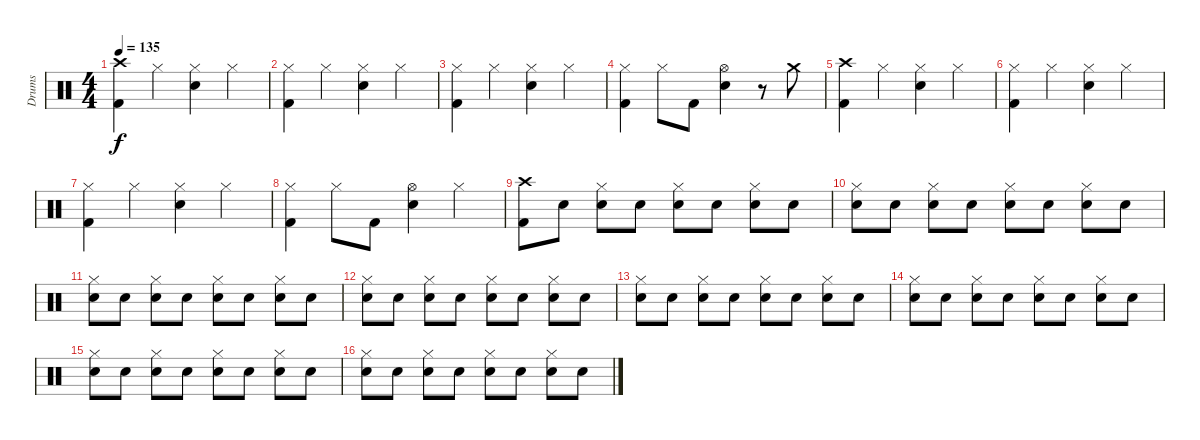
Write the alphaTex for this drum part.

\track ("Drums" "Drums") {instrument percussion}
\staff {score}
\articulation defaults
\ts (4 4)
\tempo 135
\clef neutral
\ks c
("Crash high (hit)" "Kick (hit) 2").4{dy f} "Hi-Hat (closed)".4 ("Hi-Hat (closed)" "Snare (hit) 2").4 "Hi-Hat (closed)".4 |
("Hi-Hat (closed)" "Kick (hit) 2").4 "Hi-Hat (closed)".4 ("Hi-Hat (closed)" "Snare (hit) 2").4 "Hi-Hat (closed)".4 |
("Hi-Hat (closed)" "Kick (hit) 2").4 "Hi-Hat (closed)".4 ("Hi-Hat (closed)" "Snare (hit) 2").4 "Hi-Hat (closed)".4 |
("Hi-Hat (closed)" "Kick (hit) 2").4 "Hi-Hat (closed)".8 "Kick (hit) 2".8 ("Hi-Hat (open)" "Snare (hit) 2").4 r.8 "Crash medium (hit)".8 |
("Crash high (hit)" "Kick (hit) 2").4 "Hi-Hat (closed)".4 ("Hi-Hat (closed)" "Snare (hit) 2").4 "Hi-Hat (closed)".4 |
("Hi-Hat (closed)" "Kick (hit) 2").4 "Hi-Hat (closed)".4 ("Hi-Hat (closed)" "Snare (hit) 2").4 "Hi-Hat (closed)".4 |
("Hi-Hat (closed)" "Kick (hit) 2").4 "Hi-Hat (closed)".4 ("Hi-Hat (closed)" "Snare (hit) 2").4 "Hi-Hat (closed)".4 |
("Hi-Hat (closed)" "Kick (hit) 2").4 "Hi-Hat (closed)".8 "Kick (hit) 2".8 ("Hi-Hat (open)" "Snare (hit) 2").4 "Hi-Hat (closed)".4 |
("Crash high (hit)" "Kick (hit) 2").8 "Snare (hit) 2".8{volume 7} ("Hi-Hat (closed)" "Snare (hit) 2").8 "Snare (hit) 2".8 ("Hi-Hat (closed)" "Snare (hit) 2").8 "Snare (hit) 2".8 ("Hi-Hat (closed)" "Snare (hit) 2").8 "Snare (hit) 2".8 |
("Hi-Hat (closed)" "Snare (hit) 2").8 "Snare (hit) 2".8 ("Hi-Hat (closed)" "Snare (hit) 2").8 "Snare (hit) 2".8 ("Hi-Hat (closed)" "Snare (hit) 2").8 "Snare (hit) 2".8 ("Hi-Hat (closed)" "Snare (hit) 2").8 "Snare (hit) 2".8 |
("Hi-Hat (closed)" "Snare (hit) 2").8{volume 9} "Snare (hit) 2".8 ("Hi-Hat (closed)" "Snare (hit) 2").8 "Snare (hit) 2".8 ("Hi-Hat (closed)" "Snare (hit) 2").8 "Snare (hit) 2".8 ("Hi-Hat (closed)" "Snare (hit) 2").8 "Snare (hit) 2".8 |
("Hi-Hat (closed)" "Snare (hit) 2").8 "Snare (hit) 2".8 ("Hi-Hat (closed)" "Snare (hit) 2").8 "Snare (hit) 2".8 ("Hi-Hat (closed)" "Snare (hit) 2").8 "Snare (hit) 2".8 ("Hi-Hat (closed)" "Snare (hit) 2").8 "Snare (hit) 2".8 |
("Hi-Hat (closed)" "Snare (hit) 2").8{volume 11} "Snare (hit) 2".8 ("Hi-Hat (closed)" "Snare (hit) 2").8 "Snare (hit) 2".8 ("Hi-Hat (closed)" "Snare (hit) 2").8 "Snare (hit) 2".8 ("Hi-Hat (closed)" "Snare (hit) 2").8 "Snare (hit) 2".8 |
("Hi-Hat (closed)" "Snare (hit) 2").8 "Snare (hit) 2".8 ("Hi-Hat (closed)" "Snare (hit) 2").8 "Snare (hit) 2".8 ("Hi-Hat (closed)" "Snare (hit) 2").8 "Snare (hit) 2".8 ("Hi-Hat (closed)" "Snare (hit) 2").8 "Snare (hit) 2".8 |
("Hi-Hat (closed)" "Snare (hit) 2").8{volume 13} "Snare (hit) 2".8 ("Hi-Hat (closed)" "Snare (hit) 2").8 "Snare (hit) 2".8 ("Hi-Hat (closed)" "Snare (hit) 2").8 "Snare (hit) 2".8 ("Hi-Hat (closed)" "Snare (hit) 2").8 "Snare (hit) 2".8 |
("Hi-Hat (closed)" "Snare (hit) 2").8 "Snare (hit) 2".8 ("Hi-Hat (closed)" "Snare (hit) 2").8 "Snare (hit) 2".8 ("Hi-Hat (closed)" "Snare (hit) 2").8 "Snare (hit) 2".8 ("Hi-Hat (closed)" "Snare (hit) 2").8 "Snare (hit) 2".8
